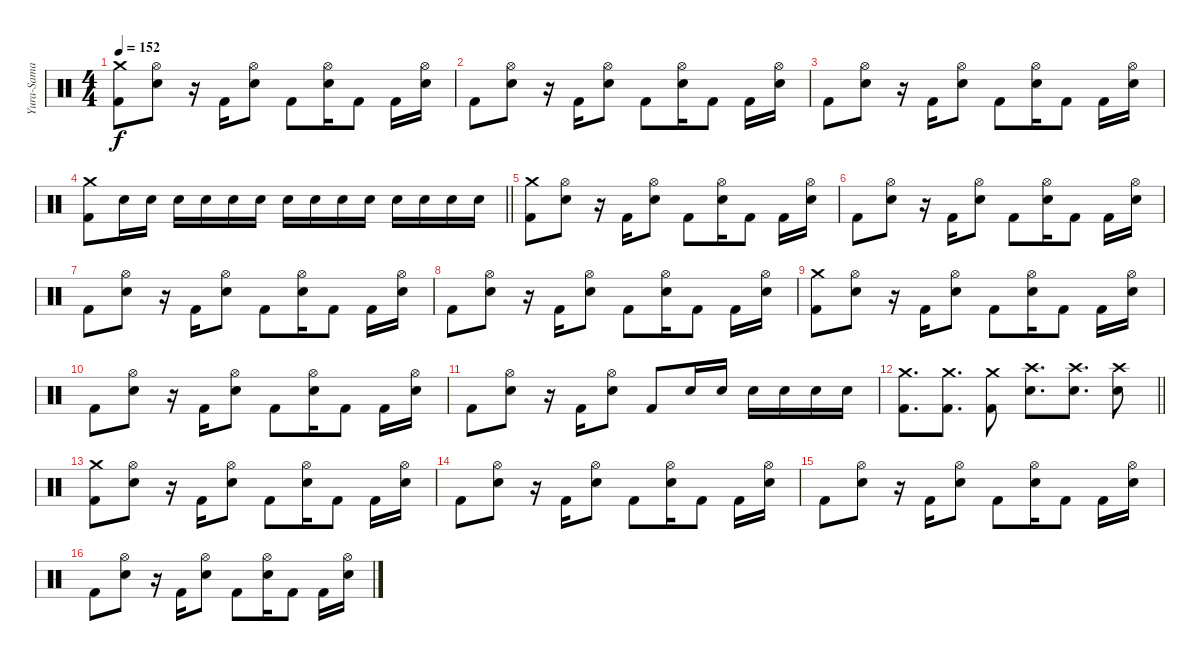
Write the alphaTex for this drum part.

\track ("Yura-Sama" "Yura-Sama") {instrument percussion}
\staff {score}
\articulation defaults
\ts (4 4)
\tempo 152
\clef neutral
\ks c
("Kick (hit) 2" "Crash medium (hit)").8{dy f} ("Electric Snare (hit)" "Hi-Hat (open)").8 r.16 "Kick (hit) 2".16 ("Electric Snare (hit)" "Hi-Hat (open)").8 "Kick (hit) 2".8 ("Electric Snare (hit)" "Hi-Hat (open)").16 "Kick (hit) 2".8 "Kick (hit) 2".16 ("Electric Snare (hit)" "Hi-Hat (open)").16 |
"Kick (hit) 2".8 ("Electric Snare (hit)" "Hi-Hat (open)").8 r.16 "Kick (hit) 2".16 ("Electric Snare (hit)" "Hi-Hat (open)").8 "Kick (hit) 2".8 ("Electric Snare (hit)" "Hi-Hat (open)").16 "Kick (hit) 2".8 "Kick (hit) 2".16 ("Electric Snare (hit)" "Hi-Hat (open)").16 |
"Kick (hit) 2".8 ("Electric Snare (hit)" "Hi-Hat (open)").8 r.16 "Kick (hit) 2".16 ("Electric Snare (hit)" "Hi-Hat (open)").8 "Kick (hit) 2".8 ("Electric Snare (hit)" "Hi-Hat (open)").16 "Kick (hit) 2".8 "Kick (hit) 2".16 ("Electric Snare (hit)" "Hi-Hat (open)").16 |
\barLineRight lightlight
("Kick (hit) 2" "Crash medium (hit)").8 "Electric Snare (hit)".16 "Electric Snare (hit)".16 "Electric Snare (hit)".16 "Electric Snare (hit)".16 "Electric Snare (hit)".16 "Electric Snare (hit)".16 "Electric Snare (hit)".16 "Electric Snare (hit)".16 "Electric Snare (hit)".16 "Electric Snare (hit)".16 "Electric Snare (hit)".16 "Electric Snare (hit)".16 "Electric Snare (hit)".16 "Electric Snare (hit)".16 |
("Kick (hit) 2" "Crash medium (hit)").8 ("Electric Snare (hit)" "Hi-Hat (open)").8 r.16 "Kick (hit) 2".16 ("Electric Snare (hit)" "Hi-Hat (open)").8 "Kick (hit) 2".8 ("Electric Snare (hit)" "Hi-Hat (open)").16 "Kick (hit) 2".8 "Kick (hit) 2".16 ("Electric Snare (hit)" "Hi-Hat (open)").16 |
"Kick (hit) 2".8 ("Electric Snare (hit)" "Hi-Hat (open)").8 r.16 "Kick (hit) 2".16 ("Electric Snare (hit)" "Hi-Hat (open)").8 "Kick (hit) 2".8 ("Electric Snare (hit)" "Hi-Hat (open)").16 "Kick (hit) 2".8 "Kick (hit) 2".16 ("Electric Snare (hit)" "Hi-Hat (open)").16 |
"Kick (hit) 2".8 ("Electric Snare (hit)" "Hi-Hat (open)").8 r.16 "Kick (hit) 2".16 ("Electric Snare (hit)" "Hi-Hat (open)").8 "Kick (hit) 2".8 ("Electric Snare (hit)" "Hi-Hat (open)").16 "Kick (hit) 2".8 "Kick (hit) 2".16 ("Electric Snare (hit)" "Hi-Hat (open)").16 |
"Kick (hit) 2".8 ("Electric Snare (hit)" "Hi-Hat (open)").8 r.16 "Kick (hit) 2".16 ("Electric Snare (hit)" "Hi-Hat (open)").8 "Kick (hit) 2".8 ("Electric Snare (hit)" "Hi-Hat (open)").16 "Kick (hit) 2".8 "Kick (hit) 2".16 ("Electric Snare (hit)" "Hi-Hat (open)").16 |
("Kick (hit) 2" "Crash medium (hit)").8 ("Electric Snare (hit)" "Hi-Hat (open)").8 r.16 "Kick (hit) 2".16 ("Electric Snare (hit)" "Hi-Hat (open)").8 "Kick (hit) 2".8 ("Electric Snare (hit)" "Hi-Hat (open)").16 "Kick (hit) 2".8 "Kick (hit) 2".16 ("Electric Snare (hit)" "Hi-Hat (open)").16 |
"Kick (hit) 2".8 ("Electric Snare (hit)" "Hi-Hat (open)").8 r.16 "Kick (hit) 2".16 ("Electric Snare (hit)" "Hi-Hat (open)").8 "Kick (hit) 2".8 ("Electric Snare (hit)" "Hi-Hat (open)").16 "Kick (hit) 2".8 "Kick (hit) 2".16 ("Electric Snare (hit)" "Hi-Hat (open)").16 |
"Kick (hit) 2".8 ("Electric Snare (hit)" "Hi-Hat (open)").8 r.16 "Kick (hit) 2".16 ("Electric Snare (hit)" "Hi-Hat (open)").8 "Kick (hit) 2".8 "Electric Snare (hit)".16 "Electric Snare (hit)".16 "Electric Snare (hit)".16 "Electric Snare (hit)".16 "Electric Snare (hit)".16 "Electric Snare (hit)".16 |
\barLineRight lightlight
("Kick (hit) 2" "Crash medium (hit)").8{d} ("Kick (hit) 2" "Crash medium (hit)").8{d} ("Kick (hit) 2" "Crash medium (hit)").8 ("Electric Snare (hit)" "Crash high (hit)").8{d} ("Electric Snare (hit)" "Crash high (hit)").8{d} ("Electric Snare (hit)" "Crash high (hit)").8 |
("Kick (hit) 2" "Crash medium (hit)").8 ("Electric Snare (hit)" "Hi-Hat (open)").8 r.16 "Kick (hit) 2".16 ("Electric Snare (hit)" "Hi-Hat (open)").8 "Kick (hit) 2".8 ("Electric Snare (hit)" "Hi-Hat (open)").16 "Kick (hit) 2".8 "Kick (hit) 2".16 ("Electric Snare (hit)" "Hi-Hat (open)").16 |
"Kick (hit) 2".8 ("Electric Snare (hit)" "Hi-Hat (open)").8 r.16 "Kick (hit) 2".16 ("Electric Snare (hit)" "Hi-Hat (open)").8 "Kick (hit) 2".8 ("Electric Snare (hit)" "Hi-Hat (open)").16 "Kick (hit) 2".8 "Kick (hit) 2".16 ("Electric Snare (hit)" "Hi-Hat (open)").16 |
"Kick (hit) 2".8 ("Electric Snare (hit)" "Hi-Hat (open)").8 r.16 "Kick (hit) 2".16 ("Electric Snare (hit)" "Hi-Hat (open)").8 "Kick (hit) 2".8 ("Electric Snare (hit)" "Hi-Hat (open)").16 "Kick (hit) 2".8 "Kick (hit) 2".16 ("Electric Snare (hit)" "Hi-Hat (open)").16 |
"Kick (hit) 2".8 ("Electric Snare (hit)" "Hi-Hat (open)").8 r.16 "Kick (hit) 2".16 ("Electric Snare (hit)" "Hi-Hat (open)").8 "Kick (hit) 2".8 ("Electric Snare (hit)" "Hi-Hat (open)").16 "Kick (hit) 2".8 "Kick (hit) 2".16 ("Electric Snare (hit)" "Hi-Hat (open)").16
